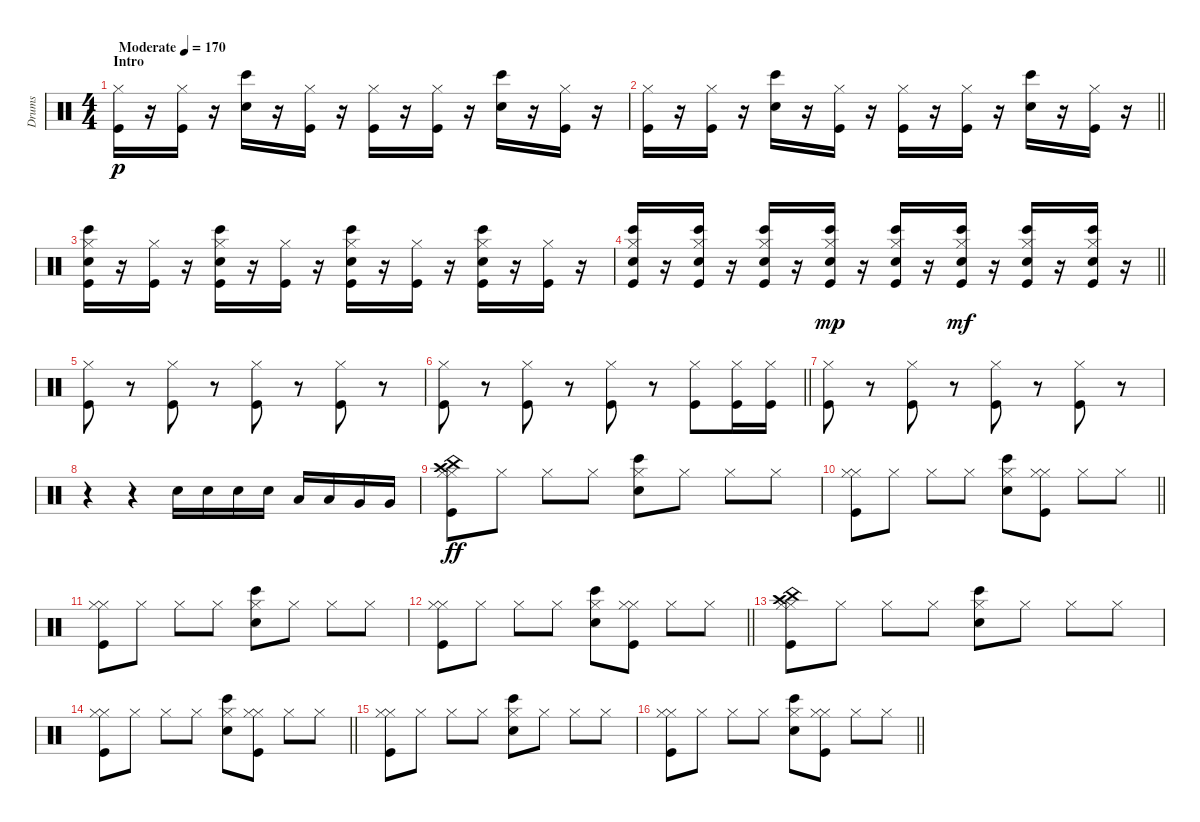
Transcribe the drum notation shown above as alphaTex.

\track ("Drums" "Drums") {instrument percussion}
\staff {score}
\articulation defaults
\ts (4 4)
\section ("" "Intro")
\tempo (170 "Moderate")
\clef neutral
\ks c
("Kick (hit)" "Hi-Hat (closed)").16{dy p} r.16 ("Kick (hit)" "Hi-Hat (closed)").16 r.16 ("Bongo High (hit)" "Snare (hit) 2").16 r.16 ("Kick (hit)" "Hi-Hat (closed)").16 r.16 ("Kick (hit)" "Hi-Hat (closed)").16 r.16 ("Kick (hit)" "Hi-Hat (closed)").16 r.16 ("Bongo High (hit)" "Snare (hit) 2").16 r.16 ("Kick (hit)" "Hi-Hat (closed)").16 r.16 |
\barLineRight lightlight
("Kick (hit)" "Hi-Hat (closed)").16 r.16 ("Kick (hit)" "Hi-Hat (closed)").16 r.16 ("Bongo High (hit)" "Snare (hit) 2").16 r.16 ("Kick (hit)" "Hi-Hat (closed)").16 r.16 ("Kick (hit)" "Hi-Hat (closed)").16 r.16 ("Kick (hit)" "Hi-Hat (closed)").16 r.16 ("Bongo High (hit)" "Snare (hit) 2").16 r.16 ("Kick (hit)" "Hi-Hat (closed)").16 r.16 |
("Bongo High (hit)" "Snare (hit) 2" "Hi-Hat (closed)" "Kick (hit)").16 r.16 ("Kick (hit)" "Hi-Hat (closed)").16 r.16 ("Snare (hit) 2" "Bongo High (hit)" "Kick (hit)" "Hi-Hat (closed)").16 r.16 ("Hi-Hat (closed)" "Kick (hit)").16 r.16 ("Bongo High (hit)" "Snare (hit) 2" "Kick (hit)" "Hi-Hat (closed)").16 r.16 ("Kick (hit)" "Hi-Hat (closed)").16 r.16 ("Bongo High (hit)" "Snare (hit) 2" "Kick (hit)" "Hi-Hat (closed)").16 r.16 ("Kick (hit)" "Hi-Hat (closed)").16 r.16 |
\barLineRight lightlight
("Bongo High (hit)" "Snare (hit) 2" "Kick (hit)" "Hi-Hat (closed)").16 r.16 ("Bongo High (hit)" "Snare (hit) 2" "Kick (hit)" "Hi-Hat (closed)").16 r.16 ("Bongo High (hit)" "Snare (hit) 2" "Kick (hit)" "Hi-Hat (closed)").16 r.16 ("Bongo High (hit)" "Snare (hit) 2" "Kick (hit)" "Hi-Hat (closed)").16{dy mp} r.16 ("Bongo High (hit)" "Snare (hit) 2" "Kick (hit)" "Hi-Hat (closed)").16 r.16 ("Bongo High (hit)" "Snare (hit) 2" "Kick (hit)" "Hi-Hat (closed)").16{dy mf} r.16 ("Bongo High (hit)" "Snare (hit) 2" "Kick (hit)" "Hi-Hat (closed)").16 r.16 ("Bongo High (hit)" "Snare (hit) 2" "Kick (hit)" "Hi-Hat (closed)").16 r.16 |
("Kick (hit)" "Hi-Hat (closed)").8 r.8 ("Kick (hit)" "Hi-Hat (closed)").8 r.8 ("Kick (hit)" "Hi-Hat (closed)").8 r.8 ("Kick (hit)" "Hi-Hat (closed)").8 r.8 |
\barLineRight lightlight
("Kick (hit)" "Hi-Hat (closed)").8 r.8 ("Kick (hit)" "Hi-Hat (closed)").8 r.8 ("Kick (hit)" "Hi-Hat (closed)").8 r.8 ("Kick (hit)" "Hi-Hat (closed)").8 ("Kick (hit)" "Hi-Hat (closed)").16 ("Kick (hit)" "Hi-Hat (closed)").16 |
("Kick (hit)" "Hi-Hat (closed)").8 r.8 ("Kick (hit)" "Hi-Hat (closed)").8 r.8 ("Kick (hit)" "Hi-Hat (closed)").8 r.8 ("Kick (hit)" "Hi-Hat (closed)").8 r.8 |
r.4 r.4 "Snare (hit) 2".16 "Snare (hit) 2".16 "Snare (hit) 2".16 "Snare (hit) 2".16 "Low Tom (hit)".16 "Low Tom (hit)".16 "Very Low Tom (hit)".16 "Very Low Tom (hit)".16 |
("China (hit)" "Kick (hit)" "Hi-Hat (closed)" "Hi-Hat (closed)" "Crash high (hit)").8{dy ff} "Hi-Hat (closed)".8 "Hi-Hat (closed)".8 "Hi-Hat (closed)".8 ("Snare (hit) 2" "Bongo High (hit)" "Hi-Hat (closed)").8 "Hi-Hat (closed)".8 "Hi-Hat (closed)".8 "Hi-Hat (closed)".8 |
\barLineRight lightlight
("Kick (hit)" "Hi-Hat (closed)" "Hi-Hat (closed)").8 "Hi-Hat (closed)".8 "Hi-Hat (closed)".8 "Hi-Hat (closed)".8 ("Snare (hit) 2" "Bongo High (hit)" "Hi-Hat (closed)").8 ("Hi-Hat (closed)" "Kick (hit)" "Hi-Hat (closed)").8 "Hi-Hat (closed)".8 "Hi-Hat (closed)".8 |
("Kick (hit)" "Hi-Hat (closed)" "Hi-Hat (closed)").8 "Hi-Hat (closed)".8 "Hi-Hat (closed)".8 "Hi-Hat (closed)".8 ("Snare (hit) 2" "Bongo High (hit)" "Hi-Hat (closed)").8 "Hi-Hat (closed)".8 "Hi-Hat (closed)".8 "Hi-Hat (closed)".8 |
\barLineRight lightlight
("Kick (hit)" "Hi-Hat (closed)" "Hi-Hat (closed)").8 "Hi-Hat (closed)".8 "Hi-Hat (closed)".8 "Hi-Hat (closed)".8 ("Snare (hit) 2" "Bongo High (hit)" "Hi-Hat (closed)").8 ("Hi-Hat (closed)" "Kick (hit)" "Hi-Hat (closed)").8 "Hi-Hat (closed)".8 "Hi-Hat (closed)".8 |
("China (hit)" "Kick (hit)" "Hi-Hat (closed)" "Hi-Hat (closed)" "Crash high (hit)").8 "Hi-Hat (closed)".8 "Hi-Hat (closed)".8 "Hi-Hat (closed)".8 ("Snare (hit) 2" "Bongo High (hit)" "Hi-Hat (closed)").8 "Hi-Hat (closed)".8 "Hi-Hat (closed)".8 "Hi-Hat (closed)".8 |
\barLineRight lightlight
("Kick (hit)" "Hi-Hat (closed)" "Hi-Hat (closed)").8 "Hi-Hat (closed)".8 "Hi-Hat (closed)".8 "Hi-Hat (closed)".8 ("Snare (hit) 2" "Bongo High (hit)" "Hi-Hat (closed)").8 ("Hi-Hat (closed)" "Kick (hit)" "Hi-Hat (closed)").8 "Hi-Hat (closed)".8 "Hi-Hat (closed)".8 |
("Kick (hit)" "Hi-Hat (closed)" "Hi-Hat (closed)").8 "Hi-Hat (closed)".8 "Hi-Hat (closed)".8 "Hi-Hat (closed)".8 ("Snare (hit) 2" "Bongo High (hit)" "Hi-Hat (closed)").8 "Hi-Hat (closed)".8 "Hi-Hat (closed)".8 "Hi-Hat (closed)".8 |
\barLineRight lightlight
("Kick (hit)" "Hi-Hat (closed)" "Hi-Hat (closed)").8 "Hi-Hat (closed)".8 "Hi-Hat (closed)".8 "Hi-Hat (closed)".8 ("Snare (hit) 2" "Bongo High (hit)" "Hi-Hat (closed)").8 ("Hi-Hat (closed)" "Kick (hit)" "Hi-Hat (closed)").8 "Hi-Hat (closed)".8 "Hi-Hat (closed)".8
